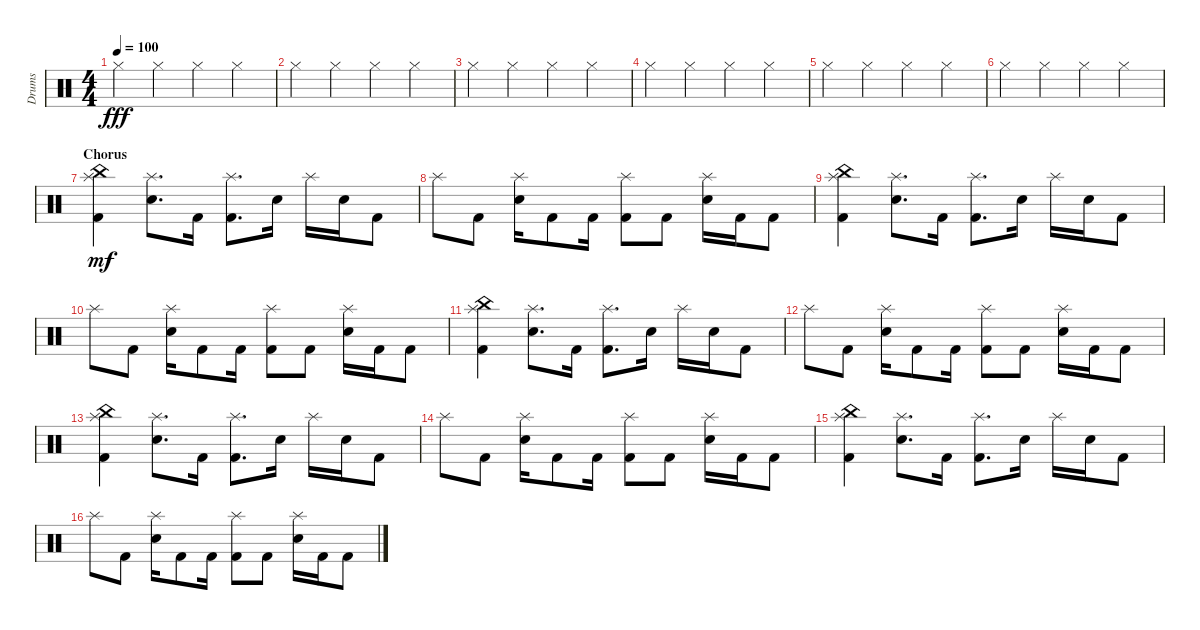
\defaultSystemsLayout 4
\bracketExtendMode groupsimilarinstruments
\otherSystemsTrackNameOrientation horizontal
\track ("Prakarsh" "Drums") {instrument percussion}
\staff {score}
\articulation defaults
\ts (4 4)
\tempo 100
\clef neutral
\ks c "Hi-Hat (closed)".4{dy fff beam Down} "Hi-Hat (closed)".4{beam Down} "Hi-Hat (closed)".4{beam Down} "Hi-Hat (closed)".4{beam Down}
|
"Hi-Hat (closed)".4{beam Down} "Hi-Hat (closed)".4{beam Down} "Hi-Hat (closed)".4{beam Down} "Hi-Hat (closed)".4{beam Down} |
"Hi-Hat (closed)".4{beam Down} "Hi-Hat (closed)".4{beam Down} "Hi-Hat (closed)".4{beam Down} "Hi-Hat (closed)".4{beam Down} |
"Hi-Hat (closed)".4{beam Down} "Hi-Hat (closed)".4{beam Down} "Hi-Hat (closed)".4{beam Down} "Hi-Hat (closed)".4{beam Down} |
"Hi-Hat (closed)".4{beam Down} "Hi-Hat (closed)".4{beam Down} "Hi-Hat (closed)".4{beam Down} "Hi-Hat (closed)".4{beam Down} |
"Hi-Hat (closed)".4{beam Down} "Hi-Hat (closed)".4{beam Down} "Hi-Hat (closed)".4{beam Down} "Hi-Hat (closed)".4{beam Down} |
\section ("" "Chorus")
("Kick (hit) 2" "China (hit)" "Splash (hit)").4{dy mf beam Down} ("Snare (hit) 2" "Splash (hit)").8{d beam Down} "Kick (hit) 2".16{beam Down} ("Kick (hit) 2" "Splash (hit)").8{d beam Down} "Snare (hit) 2".16{beam Down} "Splash (hit)".16{beam Down} "Snare (hit) 2".16{beam Down} "Kick (hit) 2".8{beam Down} |
"Splash (hit)".8{beam Down} "Kick (hit) 2".8{beam Down} ("Snare (hit) 2" "Splash (hit)").16{beam Down} "Kick (hit) 2".8{beam Down} "Kick (hit) 2".16{beam Down} ("Kick (hit) 2" "Splash (hit)").8{beam Down} "Kick (hit) 2".8{beam Down} ("Snare (hit) 2" "Splash (hit)").16{beam Down} "Kick (hit) 2".16{beam Down} "Kick (hit) 2".8{beam Down} |
("Kick (hit) 2" "China (hit)" "Splash (hit)").4{beam Down} ("Snare (hit) 2" "Splash (hit)").8{d beam Down} "Kick (hit) 2".16{beam Down} ("Kick (hit) 2" "Splash (hit)").8{d beam Down} "Snare (hit) 2".16{beam Down} "Splash (hit)".16{beam Down} "Snare (hit) 2".16{beam Down} "Kick (hit) 2".8{beam Down} |
"Splash (hit)".8{beam Down} "Kick (hit) 2".8{beam Down} ("Snare (hit) 2" "Splash (hit)").16{beam Down} "Kick (hit) 2".8{beam Down} "Kick (hit) 2".16{beam Down} ("Kick (hit) 2" "Splash (hit)").8{beam Down} "Kick (hit) 2".8{beam Down} ("Snare (hit) 2" "Splash (hit)").16{beam Down} "Kick (hit) 2".16{beam Down} "Kick (hit) 2".8{beam Down} |
("Kick (hit) 2" "China (hit)" "Splash (hit)").4{beam Down} ("Snare (hit) 2" "Splash (hit)").8{d beam Down} "Kick (hit) 2".16{beam Down} ("Kick (hit) 2" "Splash (hit)").8{d beam Down} "Snare (hit) 2".16{beam Down} "Splash (hit)".16{beam Down} "Snare (hit) 2".16{beam Down} "Kick (hit) 2".8{beam Down} |
"Splash (hit)".8{beam Down} "Kick (hit) 2".8{beam Down} ("Snare (hit) 2" "Splash (hit)").16{beam Down} "Kick (hit) 2".8{beam Down} "Kick (hit) 2".16{beam Down} ("Kick (hit) 2" "Splash (hit)").8{beam Down} "Kick (hit) 2".8{beam Down} ("Snare (hit) 2" "Splash (hit)").16{beam Down} "Kick (hit) 2".16{beam Down} "Kick (hit) 2".8{beam Down} |
("Kick (hit) 2" "China (hit)" "Splash (hit)").4{beam Down} ("Snare (hit) 2" "Splash (hit)").8{d beam Down} "Kick (hit) 2".16{beam Down} ("Kick (hit) 2" "Splash (hit)").8{d beam Down} "Snare (hit) 2".16{beam Down} "Splash (hit)".16{beam Down} "Snare (hit) 2".16{beam Down} "Kick (hit) 2".8{beam Down} |
"Splash (hit)".8{beam Down} "Kick (hit) 2".8{beam Down} ("Snare (hit) 2" "Splash (hit)").16{beam Down} "Kick (hit) 2".8{beam Down} "Kick (hit) 2".16{beam Down} ("Kick (hit) 2" "Splash (hit)").8{beam Down} "Kick (hit) 2".8{beam Down} ("Snare (hit) 2" "Splash (hit)").16{beam Down} "Kick (hit) 2".16{beam Down} "Kick (hit) 2".8{beam Down} |
("Kick (hit) 2" "China (hit)" "Splash (hit)").4{beam Down} ("Snare (hit) 2" "Splash (hit)").8{d beam Down} "Kick (hit) 2".16{beam Down} ("Kick (hit) 2" "Splash (hit)").8{d beam Down} "Snare (hit) 2".16{beam Down} "Splash (hit)".16{beam Down} "Snare (hit) 2".16{beam Down} "Kick (hit) 2".8{beam Down} |
"Splash (hit)".8{beam Down} "Kick (hit) 2".8{beam Down} ("Snare (hit) 2" "Splash (hit)").16{beam Down} "Kick (hit) 2".8{beam Down} "Kick (hit) 2".16{beam Down} ("Kick (hit) 2" "Splash (hit)").8{beam Down} "Kick (hit) 2".8{beam Down} ("Snare (hit) 2" "Splash (hit)").16{beam Down} "Kick (hit) 2".16{beam Down} "Kick (hit) 2".8{beam Down}
